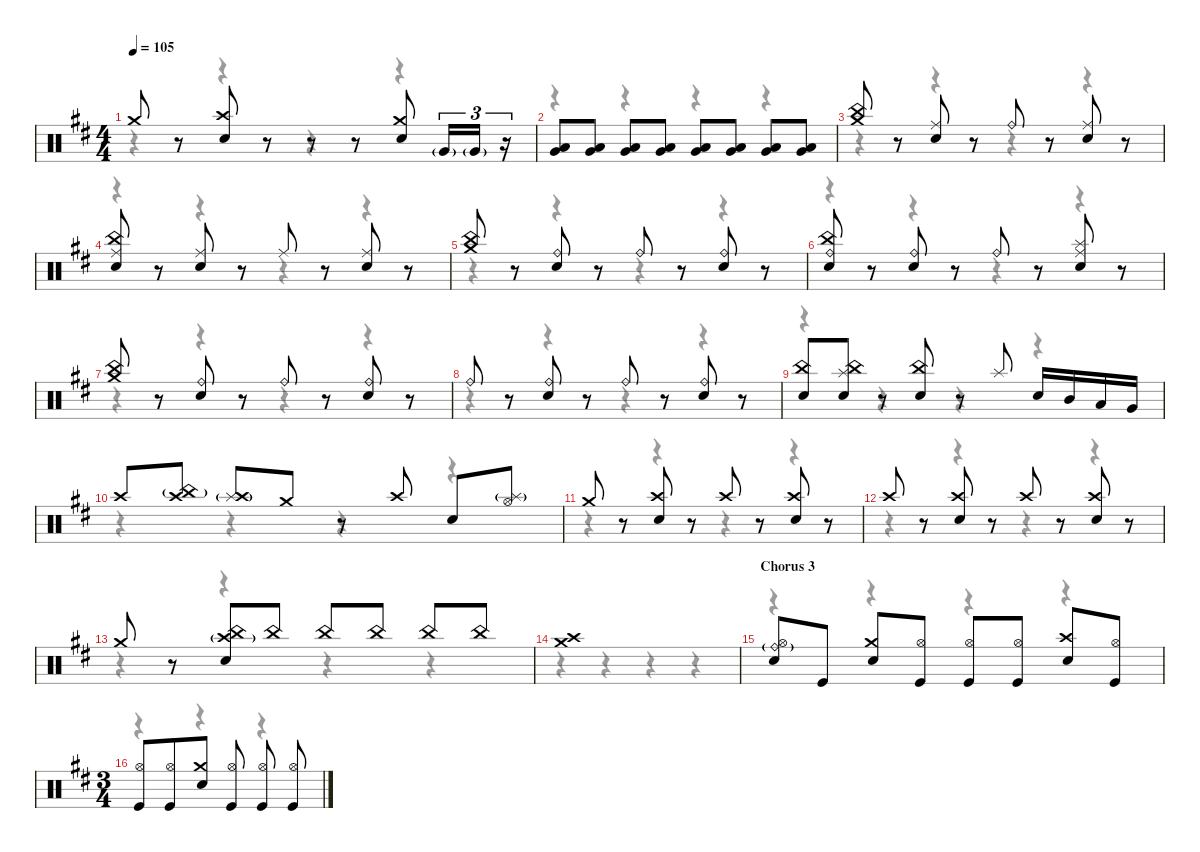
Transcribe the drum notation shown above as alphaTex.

\defaultSystemsLayout 4
\hideDynamics
\bracketExtendMode nobrackets
\singleTrackTrackNamePolicy hidden
\multiTrackTrackNamePolicy hidden
\firstSystemTrackNameMode fullname
\firstSystemTrackNameOrientation horizontal
\otherSystemsTrackNameOrientation horizontal
\track ("Drums" "drm.") {instrument percussion}
\staff {score}
\articulation defaults
\voice
\ts (4 4)
\tempo 105
\clef neutral
\ks bminor "Crash medium (hit)"{acc forcenatural}.8{dy mf beam Up}
r.8{beam Up} ("Crash high (hit)"{acc forcenatural} "Snare (hit) 2"{acc forcenatural}).8{beam Up} r.8{beam Up} r.8{beam Up} r.8{beam Up} ("Crash medium (hit)"{acc forcenatural} "Snare (hit) 2"{acc forcenatural}).8{beam Up} "Very Low Tom (hit)"{g acc forcenatural}.16{tu (3 2) dy f beam Up} "Very Low Tom (hit)"{g acc forcenatural}.16{tu (3 2) beam Up} r.16{tu (3 2) beam Up} |
("Low Tom (hit)"{acc forcenatural} "Very Low Tom (hit)"{acc forcenatural}).8{dy p beam Up} ("Low Tom (hit)"{acc forcenatural} "Very Low Tom (hit)"{acc forcenatural}).8{dy mp beam Up} ("Low Tom (hit)"{acc forcenatural} "Very Low Tom (hit)"{acc forcenatural}).8{beam Up} ("Low Tom (hit)"{acc forcenatural} "Very Low Tom (hit)"{acc forcenatural}).8{beam Up} ("Low Tom (hit)"{acc forcenatural} "Very Low Tom (hit)"{acc forcenatural}).8{dy mf beam Up} ("Low Tom (hit)"{acc forcenatural} "Very Low Tom (hit)"{acc forcenatural}).8{dy mp beam Up} ("Low Tom (hit)"{acc forcenatural} "Very Low Tom (hit)"{acc forcenatural}).8{beam Up} ("Low Tom (hit)"{acc forcenatural} "Very Low Tom (hit)"{acc forcenatural}).8{dy p beam Up} |
("China (hit)"{acc forcenatural} "Crash medium (hit)"{acc forcenatural}).8{beam Up} r.8{beam Up} ("Ride (middle)"{acc forcenatural} "Snare (hit) 2"{acc forcenatural}).8{dy mf beam Up} r.8{beam Up} "Ride (bell)"{acc forcenatural}.8{dy mp beam Up} r.8{beam Up} ("Ride (middle)"{acc forcenatural} "Snare (hit) 2"{acc forcenatural}).8{dy mf beam Up} r.8{beam Up} |
("China (hit)"{acc forcenatural} "Ride (middle)"{acc forcenatural} "Snare (hit) 2"{acc forcenatural}).8{dy p beam Up} r.8{beam Up} ("Ride (middle)"{acc forcenatural} "Snare (hit) 2"{acc forcenatural}).8{dy mf beam Up} r.8{beam Up} "Ride (middle)"{acc forcenatural}.8{beam Up} r.8{beam Up} ("Ride (middle)"{acc forcenatural} "Snare (hit) 2"{acc forcenatural}).8{beam Up} r.8{beam Up} |
("China (hit)"{acc forcenatural} "Crash medium (hit)"{acc forcenatural}).8{dy p beam Up} r.8{beam Up} ("Ride (bell)"{acc forcenatural} "Snare (hit) 2"{acc forcenatural}).8{dy mp beam Up} r.8{beam Up} "Ride (bell)"{acc forcenatural}.8{beam Up} r.8{beam Up} ("Ride (bell)"{acc forcenatural} "Snare (hit) 2"{acc forcenatural}).8{beam Up} r.8{beam Up} |
("China (hit)"{acc forcenatural} "Ride (bell)"{acc forcenatural} "Snare (hit) 2"{acc forcenatural}).8{dy p beam Up} r.8{beam Up} ("Ride (bell)"{acc forcenatural} "Snare (hit) 2"{acc forcenatural}).8{dy mp beam Up} r.8{beam Up} "Ride (bell)"{acc forcenatural}.8{beam Up} r.8{beam Up} ("Splash (hit)"{acc forcenatural} "Ride (middle)"{acc forcenatural} "Snare (hit) 2"{acc forcenatural}).8{beam Up} r.8{beam Up} |
("China (hit)"{acc forcenatural} "Crash medium (hit)"{acc forcenatural}).8{dy p beam Up} r.8{beam Up} ("Ride (bell)"{acc forcenatural} "Snare (hit) 2"{acc forcenatural}).8{dy mp beam Up} r.8{beam Up} "Ride (bell)"{acc forcenatural}.8{beam Up} r.8{beam Up} ("Ride (bell)"{acc forcenatural} "Snare (hit) 2"{acc forcenatural}).8{beam Up} r.8{beam Up} |
"Ride (bell)"{acc forcenatural}.8{beam Up} r.8{beam Up} ("Ride (bell)"{acc forcenatural} "Snare (hit) 2"{acc forcenatural}).8{beam Up} r.8{beam Up} "Ride (bell)"{acc forcenatural}.8{beam Up} r.8{beam Up} ("Ride (bell)"{acc forcenatural} "Snare (hit) 2"{acc forcenatural}).8{beam Up} r.8{beam Up} |
("China (hit)"{acc forcenatural} "Snare (hit) 2"{acc forcenatural}).8{dy mf beam Up} ("Splash (hit)"{acc forcenatural} "China (hit)"{acc forcenatural} "Snare (hit) 2"{acc forcenatural}).8{dy mp beam Up} r.8{beam Up} ("China (hit)"{acc forcenatural} "Snare (hit) 2"{acc forcenatural}).8{dy mf beam Up} r.8{beam Up} "Splash (hit)"{acc forcenatural}.8{beam Up} "Snare (hit) 2"{acc forcenatural}.16{dy f beam Up} "Mid Tom (hit)"{acc forcenatural}.16{beam Up} "Low Tom (hit)"{acc forcenatural}.16{beam Up} "Very Low Tom (hit)"{acc forcenatural}.16{beam Up} |
"Crash high (hit)"{acc forcenatural}.8{dy mf beam Up} ("China (hit)"{g acc forcenatural} "Crash high (hit)"{acc forcenatural}).8{dy mp beam Up} ("Splash (hit)"{g acc forcenatural} "Crash high (hit)"{acc forcenatural}).8{dy mf beam Up} "Crash medium (hit)"{acc forcenatural}.8{beam Up} r.8{beam Up} "Crash high (hit)"{acc forcenatural}.8{beam Up} "Snare (hit) 2"{acc forcenatural}.8{dy f beam Up} ("Splash (hit)"{g acc forcenatural} "Hi-Hat (open)"{acc forcenatural}).8{dy mp beam Up} |
"Crash medium (hit)"{acc forcenatural}.8{dy mf beam Up} r.8{beam Up} ("Crash high (hit)"{acc forcenatural} "Snare (hit) 2"{acc forcenatural}).8{beam Up} r.8{beam Up} "Crash high (hit)"{acc forcenatural}.8{beam Up} r.8{beam Up} ("Crash high (hit)"{acc forcenatural} "Snare (hit) 2"{acc forcenatural}).8{beam Up} r.8{beam Up} |
"Crash high (hit)"{acc forcenatural}.8{beam Up} r.8{beam Up} ("Crash high (hit)"{acc forcenatural} "Snare (hit) 2"{acc forcenatural}).8{beam Up} r.8{beam Up} "Crash high (hit)"{acc forcenatural}.8{beam Up} r.8{beam Up} ("Crash high (hit)"{acc forcenatural} "Snare (hit) 2"{acc forcenatural}).8{beam Up} r.8{beam Up} |
"Crash medium (hit)"{acc forcenatural}.8{beam Up} r.8{beam Up} ("China (hit)"{acc forcenatural} "Crash high (hit)"{g acc forcenatural} "Snare (hit) 2"{acc forcenatural}).8{dy mp beam Up} "China (hit)"{acc forcenatural}.8{beam Up} "China (hit)"{acc forcenatural}.8{beam Up} "China (hit)"{acc forcenatural}.8{beam Up} "China (hit)"{acc forcenatural}.8{dy mf beam Up} "China (hit)"{acc forcenatural}.8{beam Up} |
("Crash high (hit)"{acc forcenatural} "Crash medium (hit)"{acc forcenatural}).1{dy mp beam Up} |
\section ("" "Chorus 3")
("Ride (bell)"{g acc forcenatural} "Hi-Hat (open)"{acc forcenatural} "Snare (hit) 2"{acc forcenatural}).8{beam Up} "Kick (hit)"{acc forcenatural}.8{dy f beam Up} ("Crash medium (hit)"{acc forcenatural} "Snare (hit) 2"{acc forcenatural}).8{dy mp beam Up} ("Hi-Hat (open)"{acc forcenatural} "Kick (hit)"{acc forcenatural}).8{dy pp beam Up} ("Hi-Hat (open)"{acc forcenatural} "Kick (hit)"{acc forcenatural}).8{dy mp beam Up} ("Hi-Hat (open)"{acc forcenatural} "Kick (hit)"{acc forcenatural}).8{dy pp beam Up} ("Crash high (hit)"{acc forcenatural} "Snare (hit) 2"{acc forcenatural}).8{dy mp beam Up} ("Hi-Hat (open)"{acc forcenatural} "Kick (hit)"{acc forcenatural}).8{dy pp beam Up} |
\ts (3 4)
\beaming (8 3 1 1 1)
("Hi-Hat (open)"{acc forcenatural} "Kick (hit)"{acc forcenatural}).8{dy mp beam Up} ("Hi-Hat (open)"{acc forcenatural} "Kick (hit)"{acc forcenatural}).8{dy pp beam Up} ("Crash medium (hit)"{acc forcenatural} "Snare (hit) 2"{acc forcenatural}).8{dy mp beam Up} ("Hi-Hat (open)"{acc forcenatural} "Kick (hit)"{acc forcenatural}).8{dy pp beam Up} ("Hi-Hat (open)"{acc forcenatural} "Kick (hit)"{acc forcenatural}).8{dy mp beam Up} ("Hi-Hat (open)"{acc forcenatural} "Kick (hit)"{acc forcenatural}).8{dy pp beam Up}
\voice
\clef neutral
\ottava regular
\simile none
\ks bminor
r.4{dy mf beam Down} r.4{beam Down} r.4{beam Down} r.4{beam Down} |
r.4{beam Down} r.4{beam Down} r.4{beam Down} r.4{beam Down} |
r.4{beam Down} r.4{beam Down} r.4{beam Down} r.4{beam Down} |
r.4{beam Down} r.4{beam Down} r.4{beam Down} r.4{beam Down} |
r.4{beam Down} r.4{beam Down} r.4{beam Down} r.4{beam Down} |
r.4{beam Down} r.4{beam Down} r.4{beam Down} r.4{beam Down} |
r.4{beam Down} r.4{beam Down} r.4{beam Down} r.4{beam Down} |
r.4{beam Down} r.4{beam Down} r.4{beam Down} r.4{beam Down} |
r.4{beam Down} r.4{beam Down} r.4{beam Down} r.4{beam Down} |
r.4{beam Down} r.4{beam Down} r.4{beam Down} r.4{beam Down} |
r.4{beam Down} r.4{beam Down} r.4{beam Down} r.4{beam Down} |
r.4{beam Down} r.4{beam Down} r.4{beam Down} r.4{beam Down} |
r.4{beam Down} r.4{beam Down} r.4{beam Down} r.4{beam Down} |
r.4{beam Down} r.4{beam Down} r.4{beam Down} r.4{beam Down} |
r.4{beam Down} r.4{beam Down} r.4{beam Down} r.4{beam Down} |
r.4{beam Down} r.4{beam Down} r.4{beam Down}
